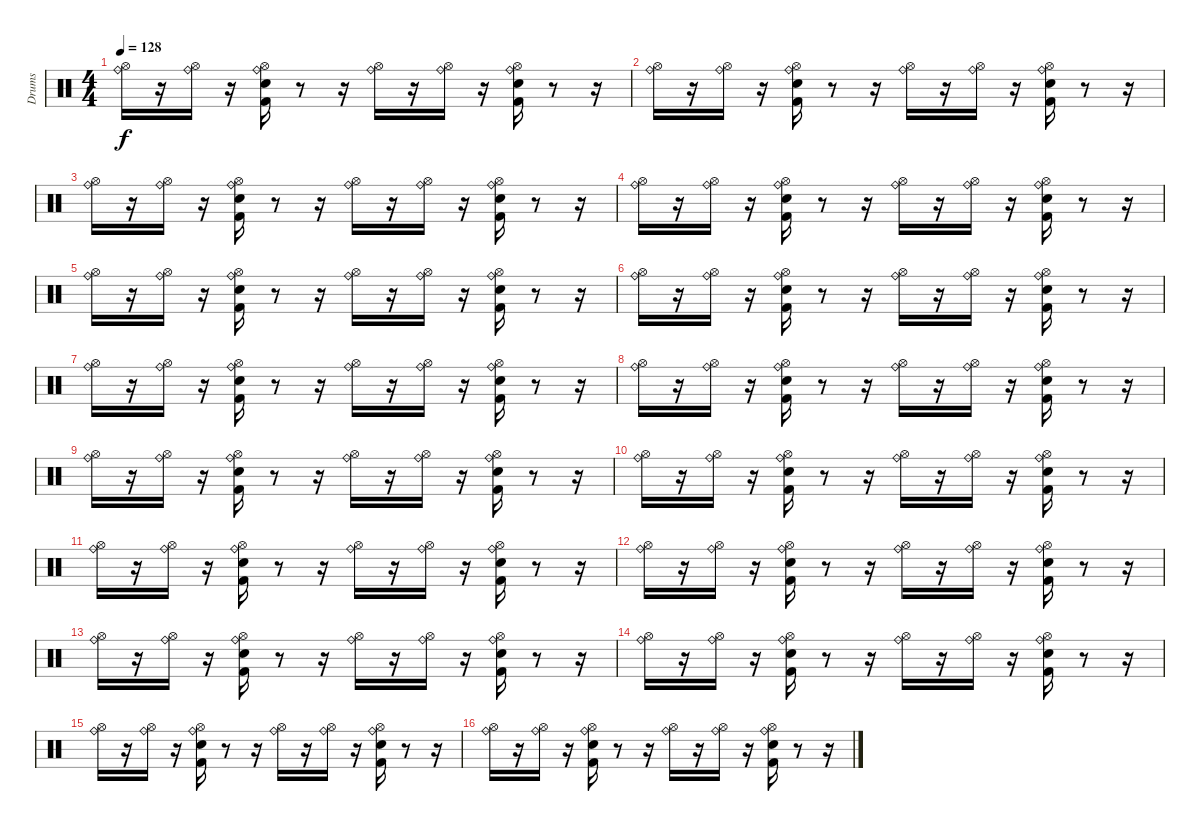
\track ("Drums" "Drums") {instrument percussion}
\staff {score}
\articulation defaults
\ts (4 4)
\tempo 128
\clef neutral
\ks c
("Ride (bell)" "Hi-Hat (open)").16{dy f} r.16 ("Hi-Hat (open)" "Ride (bell)").16 r.16 ("Kick (hit) 2" "Snare (hit) 2" "Ride (bell)" "Hi-Hat (open)").16 r.8 r.16 ("Hi-Hat (open)" "Ride (bell)").16 r.16 ("Hi-Hat (open)" "Ride (bell)").16 r.16 ("Kick (hit) 2" "Snare (hit) 2" "Hi-Hat (open)" "Ride (bell)").16 r.8 r.16 |
("Ride (bell)" "Hi-Hat (open)").16 r.16 ("Hi-Hat (open)" "Ride (bell)").16 r.16 ("Kick (hit) 2" "Snare (hit) 2" "Ride (bell)" "Hi-Hat (open)").16 r.8 r.16 ("Hi-Hat (open)" "Ride (bell)").16 r.16 ("Hi-Hat (open)" "Ride (bell)").16 r.16 ("Kick (hit) 2" "Snare (hit) 2" "Hi-Hat (open)" "Ride (bell)").16 r.8 r.16 |
("Ride (bell)" "Hi-Hat (open)").16 r.16 ("Hi-Hat (open)" "Ride (bell)").16 r.16 ("Kick (hit) 2" "Snare (hit) 2" "Ride (bell)" "Hi-Hat (open)").16 r.8 r.16 ("Hi-Hat (open)" "Ride (bell)").16 r.16 ("Hi-Hat (open)" "Ride (bell)").16 r.16 ("Kick (hit) 2" "Snare (hit) 2" "Hi-Hat (open)" "Ride (bell)").16 r.8 r.16 |
("Ride (bell)" "Hi-Hat (open)").16 r.16 ("Hi-Hat (open)" "Ride (bell)").16 r.16 ("Kick (hit) 2" "Snare (hit) 2" "Ride (bell)" "Hi-Hat (open)").16 r.8 r.16 ("Hi-Hat (open)" "Ride (bell)").16 r.16 ("Hi-Hat (open)" "Ride (bell)").16 r.16 ("Kick (hit) 2" "Snare (hit) 2" "Hi-Hat (open)" "Ride (bell)").16 r.8 r.16 |
("Ride (bell)" "Hi-Hat (open)").16 r.16 ("Hi-Hat (open)" "Ride (bell)").16 r.16 ("Kick (hit) 2" "Snare (hit) 2" "Ride (bell)" "Hi-Hat (open)").16 r.8 r.16 ("Hi-Hat (open)" "Ride (bell)").16 r.16 ("Hi-Hat (open)" "Ride (bell)").16 r.16 ("Kick (hit) 2" "Snare (hit) 2" "Hi-Hat (open)" "Ride (bell)").16 r.8 r.16 |
("Ride (bell)" "Hi-Hat (open)").16 r.16 ("Hi-Hat (open)" "Ride (bell)").16 r.16 ("Kick (hit) 2" "Snare (hit) 2" "Ride (bell)" "Hi-Hat (open)").16 r.8 r.16 ("Hi-Hat (open)" "Ride (bell)").16 r.16 ("Hi-Hat (open)" "Ride (bell)").16 r.16 ("Kick (hit) 2" "Snare (hit) 2" "Hi-Hat (open)" "Ride (bell)").16 r.8 r.16 |
("Ride (bell)" "Hi-Hat (open)").16 r.16 ("Hi-Hat (open)" "Ride (bell)").16 r.16 ("Kick (hit) 2" "Snare (hit) 2" "Ride (bell)" "Hi-Hat (open)").16 r.8 r.16 ("Hi-Hat (open)" "Ride (bell)").16 r.16 ("Hi-Hat (open)" "Ride (bell)").16 r.16 ("Kick (hit) 2" "Snare (hit) 2" "Hi-Hat (open)" "Ride (bell)").16 r.8 r.16 |
("Ride (bell)" "Hi-Hat (open)").16 r.16 ("Hi-Hat (open)" "Ride (bell)").16 r.16 ("Kick (hit) 2" "Snare (hit) 2" "Ride (bell)" "Hi-Hat (open)").16 r.8 r.16 ("Hi-Hat (open)" "Ride (bell)").16 r.16 ("Hi-Hat (open)" "Ride (bell)").16 r.16 ("Kick (hit) 2" "Snare (hit) 2" "Hi-Hat (open)" "Ride (bell)").16 r.8 r.16 |
("Ride (bell)" "Hi-Hat (open)").16 r.16 ("Hi-Hat (open)" "Ride (bell)").16 r.16 ("Kick (hit) 2" "Snare (hit) 2" "Ride (bell)" "Hi-Hat (open)").16 r.8 r.16 ("Hi-Hat (open)" "Ride (bell)").16 r.16 ("Hi-Hat (open)" "Ride (bell)").16 r.16 ("Kick (hit) 2" "Snare (hit) 2" "Hi-Hat (open)" "Ride (bell)").16 r.8 r.16 |
("Ride (bell)" "Hi-Hat (open)").16 r.16 ("Hi-Hat (open)" "Ride (bell)").16 r.16 ("Kick (hit) 2" "Snare (hit) 2" "Ride (bell)" "Hi-Hat (open)").16 r.8 r.16 ("Hi-Hat (open)" "Ride (bell)").16 r.16 ("Hi-Hat (open)" "Ride (bell)").16 r.16 ("Kick (hit) 2" "Snare (hit) 2" "Hi-Hat (open)" "Ride (bell)").16 r.8 r.16 |
("Ride (bell)" "Hi-Hat (open)").16 r.16 ("Hi-Hat (open)" "Ride (bell)").16 r.16 ("Kick (hit) 2" "Snare (hit) 2" "Ride (bell)" "Hi-Hat (open)").16 r.8 r.16 ("Hi-Hat (open)" "Ride (bell)").16 r.16 ("Hi-Hat (open)" "Ride (bell)").16 r.16 ("Kick (hit) 2" "Snare (hit) 2" "Hi-Hat (open)" "Ride (bell)").16 r.8 r.16 |
("Ride (bell)" "Hi-Hat (open)").16 r.16 ("Hi-Hat (open)" "Ride (bell)").16 r.16 ("Kick (hit) 2" "Snare (hit) 2" "Ride (bell)" "Hi-Hat (open)").16 r.8 r.16 ("Hi-Hat (open)" "Ride (bell)").16 r.16 ("Hi-Hat (open)" "Ride (bell)").16 r.16 ("Kick (hit) 2" "Snare (hit) 2" "Hi-Hat (open)" "Ride (bell)").16 r.8 r.16 |
("Ride (bell)" "Hi-Hat (open)").16 r.16 ("Hi-Hat (open)" "Ride (bell)").16 r.16 ("Kick (hit) 2" "Snare (hit) 2" "Ride (bell)" "Hi-Hat (open)").16 r.8 r.16 ("Hi-Hat (open)" "Ride (bell)").16 r.16 ("Hi-Hat (open)" "Ride (bell)").16 r.16 ("Kick (hit) 2" "Snare (hit) 2" "Hi-Hat (open)" "Ride (bell)").16 r.8 r.16 |
("Ride (bell)" "Hi-Hat (open)").16 r.16 ("Hi-Hat (open)" "Ride (bell)").16 r.16 ("Kick (hit) 2" "Snare (hit) 2" "Ride (bell)" "Hi-Hat (open)").16 r.8 r.16 ("Hi-Hat (open)" "Ride (bell)").16 r.16 ("Hi-Hat (open)" "Ride (bell)").16 r.16 ("Kick (hit) 2" "Snare (hit) 2" "Hi-Hat (open)" "Ride (bell)").16 r.8 r.16 |
("Ride (bell)" "Hi-Hat (open)").16 r.16 ("Hi-Hat (open)" "Ride (bell)").16 r.16 ("Kick (hit) 2" "Snare (hit) 2" "Ride (bell)" "Hi-Hat (open)").16 r.8 r.16 ("Hi-Hat (open)" "Ride (bell)").16 r.16 ("Hi-Hat (open)" "Ride (bell)").16 r.16 ("Kick (hit) 2" "Snare (hit) 2" "Hi-Hat (open)" "Ride (bell)").16 r.8 r.16 |
("Ride (bell)" "Hi-Hat (open)").16 r.16 ("Hi-Hat (open)" "Ride (bell)").16 r.16 ("Kick (hit) 2" "Snare (hit) 2" "Ride (bell)" "Hi-Hat (open)").16 r.8 r.16 ("Hi-Hat (open)" "Ride (bell)").16 r.16 ("Hi-Hat (open)" "Ride (bell)").16 r.16 ("Kick (hit) 2" "Snare (hit) 2" "Hi-Hat (open)" "Ride (bell)").16 r.8 r.16
